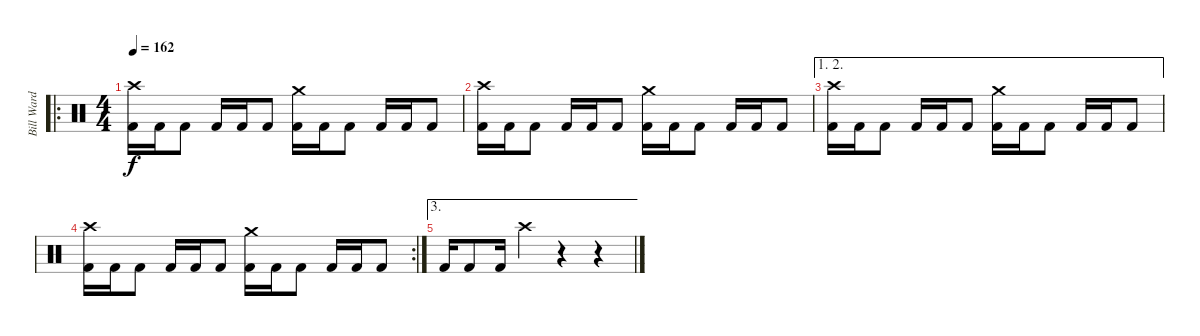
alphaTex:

\track ("Bill Ward" "Bill Ward") {instrument percussion}
\staff {score}
\articulation defaults
\ro
\ts (4 4)
\tempo 162
\clef neutral
\ks c
("Crash high (hit)" "Kick (hit) 2").16{dy f} "Kick (hit) 2".16 "Kick (hit) 2".8 "Kick (hit) 2".16 "Kick (hit) 2".16 "Kick (hit) 2".8 ("Crash medium (hit)" "Kick (hit) 2").16 "Kick (hit) 2".16 "Kick (hit) 2".8 "Kick (hit) 2".16 "Kick (hit) 2".16 "Kick (hit) 2".8 |
("Crash high (hit)" "Kick (hit) 2").16 "Kick (hit) 2".16 "Kick (hit) 2".8 "Kick (hit) 2".16 "Kick (hit) 2".16 "Kick (hit) 2".8 ("Crash medium (hit)" "Kick (hit) 2").16 "Kick (hit) 2".16 "Kick (hit) 2".8 "Kick (hit) 2".16 "Kick (hit) 2".16 "Kick (hit) 2".8 |
\ae (1 2)
("Crash high (hit)" "Kick (hit) 2").16 "Kick (hit) 2".16 "Kick (hit) 2".8 "Kick (hit) 2".16 "Kick (hit) 2".16 "Kick (hit) 2".8 ("Crash medium (hit)" "Kick (hit) 2").16 "Kick (hit) 2".16 "Kick (hit) 2".8 "Kick (hit) 2".16 "Kick (hit) 2".16 "Kick (hit) 2".8 |
\rc 2
("Crash high (hit)" "Kick (hit) 2").16 "Kick (hit) 2".16 "Kick (hit) 2".8 "Kick (hit) 2".16 "Kick (hit) 2".16 "Kick (hit) 2".8 ("Crash medium (hit)" "Kick (hit) 2").16 "Kick (hit) 2".16 "Kick (hit) 2".8 "Kick (hit) 2".16 "Kick (hit) 2".16 "Kick (hit) 2".8 |
\ae 3 "Kick (hit) 2".16 "Kick (hit) 2".8 "Kick (hit) 2".16 "Crash high (hit)".4
r.4 r.4
